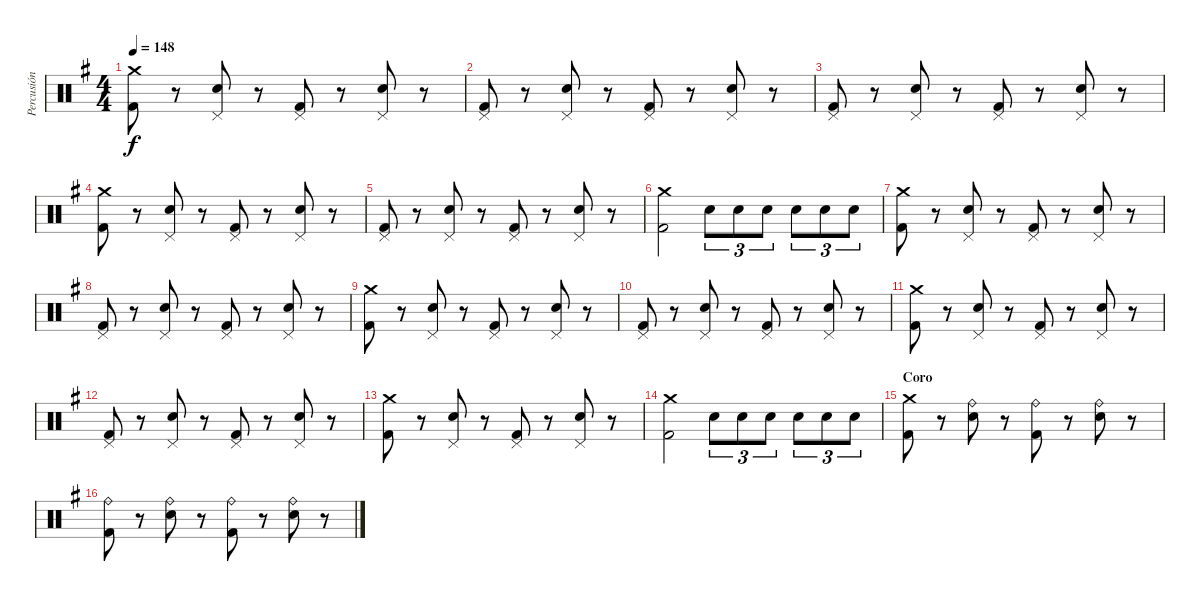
\track ("Percusión" "Percusión") {instrument percussion}
\staff {score}
\articulation defaults
\ts (4 4)
\tempo 148
\clef neutral
\ks g
("Crash medium (hit)" "Kick (hit) 2").8{dy f} r.8 ("Pedal Hi-Hat (hit)" "Snare (hit) 2").8 r.8 ("Pedal Hi-Hat (hit)" "Kick (hit) 2").8 r.8 ("Pedal Hi-Hat (hit)" "Snare (hit) 2").8 r.8 |
("Pedal Hi-Hat (hit)" "Kick (hit) 2").8 r.8 ("Pedal Hi-Hat (hit)" "Snare (hit) 2").8 r.8 ("Pedal Hi-Hat (hit)" "Kick (hit) 2").8 r.8 ("Pedal Hi-Hat (hit)" "Snare (hit) 2").8 r.8 |
("Pedal Hi-Hat (hit)" "Kick (hit) 2").8 r.8 ("Pedal Hi-Hat (hit)" "Snare (hit) 2").8 r.8 ("Pedal Hi-Hat (hit)" "Kick (hit) 2").8 r.8 ("Pedal Hi-Hat (hit)" "Snare (hit) 2").8 r.8 |
("Crash medium (hit)" "Kick (hit) 2").8 r.8 ("Pedal Hi-Hat (hit)" "Snare (hit) 2").8 r.8 ("Pedal Hi-Hat (hit)" "Kick (hit) 2").8 r.8 ("Pedal Hi-Hat (hit)" "Snare (hit) 2").8 r.8 |
("Pedal Hi-Hat (hit)" "Kick (hit) 2").8 r.8 ("Pedal Hi-Hat (hit)" "Snare (hit) 2").8 r.8 ("Pedal Hi-Hat (hit)" "Kick (hit) 2").8 r.8 ("Pedal Hi-Hat (hit)" "Snare (hit) 2").8 r.8 |
("Crash medium (hit)" "Kick (hit) 2").2 "Snare (hit) 2".8{tu (3 2)} "Snare (hit) 2".8{tu (3 2)} "Snare (hit) 2".8{tu (3 2)} "Snare (hit) 2".8{tu (3 2)} "Snare (hit) 2".8{tu (3 2)} "Snare (hit) 2".8{tu (3 2)} |
("Crash medium (hit)" "Kick (hit) 2").8 r.8 ("Pedal Hi-Hat (hit)" "Snare (hit) 2").8 r.8 ("Pedal Hi-Hat (hit)" "Kick (hit) 2").8 r.8 ("Pedal Hi-Hat (hit)" "Snare (hit) 2").8 r.8 |
("Pedal Hi-Hat (hit)" "Kick (hit) 2").8 r.8 ("Pedal Hi-Hat (hit)" "Snare (hit) 2").8 r.8 ("Pedal Hi-Hat (hit)" "Kick (hit) 2").8 r.8 ("Pedal Hi-Hat (hit)" "Snare (hit) 2").8 r.8 |
("Crash medium (hit)" "Kick (hit) 2").8 r.8 ("Pedal Hi-Hat (hit)" "Snare (hit) 2").8 r.8 ("Pedal Hi-Hat (hit)" "Kick (hit) 2").8 r.8 ("Pedal Hi-Hat (hit)" "Snare (hit) 2").8 r.8 |
("Pedal Hi-Hat (hit)" "Kick (hit) 2").8 r.8 ("Pedal Hi-Hat (hit)" "Snare (hit) 2").8 r.8 ("Pedal Hi-Hat (hit)" "Kick (hit) 2").8 r.8 ("Pedal Hi-Hat (hit)" "Snare (hit) 2").8 r.8 |
("Crash medium (hit)" "Kick (hit) 2").8 r.8 ("Pedal Hi-Hat (hit)" "Snare (hit) 2").8 r.8 ("Pedal Hi-Hat (hit)" "Kick (hit) 2").8 r.8 ("Pedal Hi-Hat (hit)" "Snare (hit) 2").8 r.8 |
("Pedal Hi-Hat (hit)" "Kick (hit) 2").8 r.8 ("Pedal Hi-Hat (hit)" "Snare (hit) 2").8 r.8 ("Pedal Hi-Hat (hit)" "Kick (hit) 2").8 r.8 ("Pedal Hi-Hat (hit)" "Snare (hit) 2").8 r.8 |
("Crash medium (hit)" "Kick (hit) 2").8 r.8 ("Pedal Hi-Hat (hit)" "Snare (hit) 2").8 r.8 ("Pedal Hi-Hat (hit)" "Kick (hit) 2").8 r.8 ("Pedal Hi-Hat (hit)" "Snare (hit) 2").8 r.8 |
("Crash medium (hit)" "Kick (hit) 2").2 "Snare (hit) 2".8{tu (3 2)} "Snare (hit) 2".8{tu (3 2)} "Snare (hit) 2".8{tu (3 2)} "Snare (hit) 2".8{tu (3 2)} "Snare (hit) 2".8{tu (3 2)} "Snare (hit) 2".8{tu (3 2)} |
\section ("" "Coro")
("Crash medium (hit)" "Kick (hit) 2").8 r.8 ("Ride (bell)" "Snare (hit) 2").8 r.8 ("Ride (bell)" "Kick (hit) 2").8 r.8 ("Ride (bell)" "Snare (hit) 2").8 r.8 |
("Ride (bell)" "Kick (hit) 2").8 r.8 ("Ride (bell)" "Snare (hit) 2").8 r.8 ("Ride (bell)" "Kick (hit) 2").8 r.8 ("Ride (bell)" "Snare (hit) 2").8 r.8
